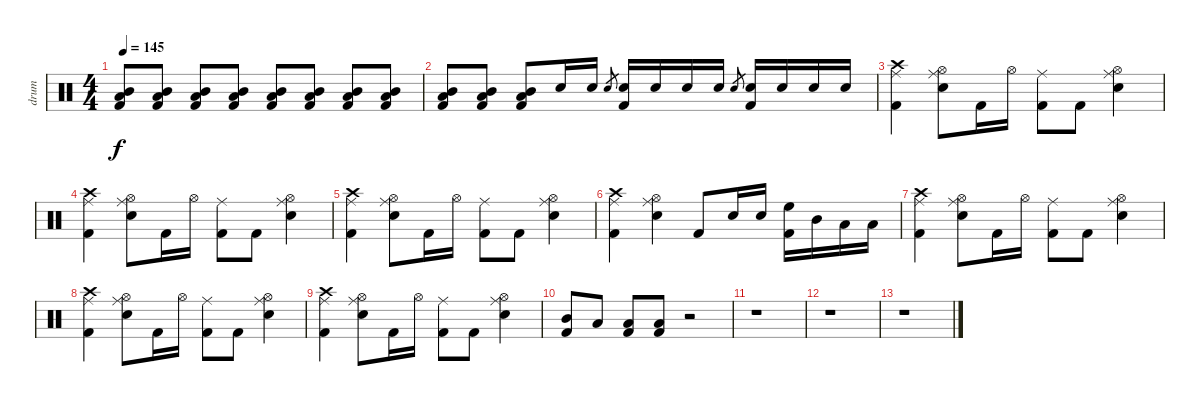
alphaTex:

\track ("drum" "drum") {instrument percussion}
\staff {score}
\articulation defaults
\ts (4 4)
\tempo 145
\clef neutral
\ks c
("Mid Tom (hit)" "Low Floor Tom (hit)" "Kick (hit) 2").8{dy f} ("Mid Tom (hit)" "Low Floor Tom (hit)" "Kick (hit) 2").8 ("Mid Tom (hit)" "Low Floor Tom (hit)" "Kick (hit) 2").8 ("Mid Tom (hit)" "Low Floor Tom (hit)" "Kick (hit) 2").8 ("Mid Tom (hit)" "Low Floor Tom (hit)" "Kick (hit) 2").8 ("Mid Tom (hit)" "Low Floor Tom (hit)" "Kick (hit) 2").8 ("Mid Tom (hit)" "Low Floor Tom (hit)" "Kick (hit) 2").8 ("Mid Tom (hit)" "Low Floor Tom (hit)" "Kick (hit) 2").8 |
("Mid Tom (hit)" "Low Floor Tom (hit)" "Kick (hit) 2").8 ("Mid Tom (hit)" "Low Floor Tom (hit)" "Kick (hit) 2").8 ("Mid Tom (hit)" "Low Floor Tom (hit)" "Kick (hit) 2").8 "Snare (hit) 2".16 "Snare (hit) 2".16 "Snare (hit) 2".8{gr} ("Snare (hit) 2" "Kick (hit) 2").16 "Snare (hit) 2".16 "Snare (hit) 2".16 "Snare (hit) 2".16 "Snare (hit) 2".8{gr} ("Snare (hit) 2" "Kick (hit) 2").16 "Snare (hit) 2".16 "Snare (hit) 2".16 "Snare (hit) 2".16 |
("Crash high (hit)" "Ride (middle)" "Kick (hit) 2").4{volume 14} ("Snare (hit) 2" "Ride (middle)" "Hi-Hat (open)").8 "Kick (hit) 2".16 "Hi-Hat (open)".16 ("Ride (middle)" "Kick (hit) 2").8 "Kick (hit) 2".8 ("Snare (hit) 2" "Ride (middle)" "Hi-Hat (open)").4 |
("Crash high (hit)" "Ride (middle)" "Kick (hit) 2").4 ("Snare (hit) 2" "Ride (middle)" "Hi-Hat (open)").8 "Kick (hit) 2".16 "Hi-Hat (open)".16 ("Ride (middle)" "Kick (hit) 2").8 "Kick (hit) 2".8 ("Snare (hit) 2" "Ride (middle)" "Hi-Hat (open)").4 |
("Crash high (hit)" "Ride (middle)" "Kick (hit) 2").4 ("Snare (hit) 2" "Ride (middle)" "Hi-Hat (open)").8 "Kick (hit) 2".16 "Hi-Hat (open)".16 ("Ride (middle)" "Kick (hit) 2").8 "Kick (hit) 2".8 ("Snare (hit) 2" "Ride (middle)" "Hi-Hat (open)").4 |
("Crash high (hit)" "Ride (middle)" "Kick (hit) 2").4 ("Snare (hit) 2" "Ride (middle)" "Hi-Hat (open)").4 "Kick (hit) 2".8 "Snare (hit) 2".16 "Snare (hit) 2".16 ("High Floor Tom (hit)" "Kick (hit) 2").16 "Mid Tom (hit)".16 "Low Tom (hit)".16 "Low Tom (hit)".16 |
("Crash high (hit)" "Ride (middle)" "Kick (hit) 2").4 ("Snare (hit) 2" "Ride (middle)" "Hi-Hat (open)").8 "Kick (hit) 2".16 "Hi-Hat (open)".16 ("Ride (middle)" "Kick (hit) 2").8 "Kick (hit) 2".8 ("Snare (hit) 2" "Ride (middle)" "Hi-Hat (open)").4 |
("Crash high (hit)" "Ride (middle)" "Kick (hit) 2").4 ("Snare (hit) 2" "Ride (middle)" "Hi-Hat (open)").8 "Kick (hit) 2".16 "Hi-Hat (open)".16 ("Ride (middle)" "Kick (hit) 2").8 "Kick (hit) 2".8 ("Snare (hit) 2" "Ride (middle)" "Hi-Hat (open)").4 |
("Crash high (hit)" "Ride (middle)" "Kick (hit) 2").4 ("Snare (hit) 2" "Ride (middle)" "Hi-Hat (open)").8 "Kick (hit) 2".16 "Hi-Hat (open)".16 ("Ride (middle)" "Kick (hit) 2").8 "Kick (hit) 2".8 ("Snare (hit) 2" "Ride (middle)" "Hi-Hat (open)").4 |
("Mid Tom (hit)" "Kick (hit) 2").8 "Low Tom (hit)".8 ("Low Floor Tom (hit)" "Kick (hit) 2").8 ("Low Floor Tom (hit)" "Kick (hit) 2").8 r.2 |
r.1 |
r.1 |
r.1
